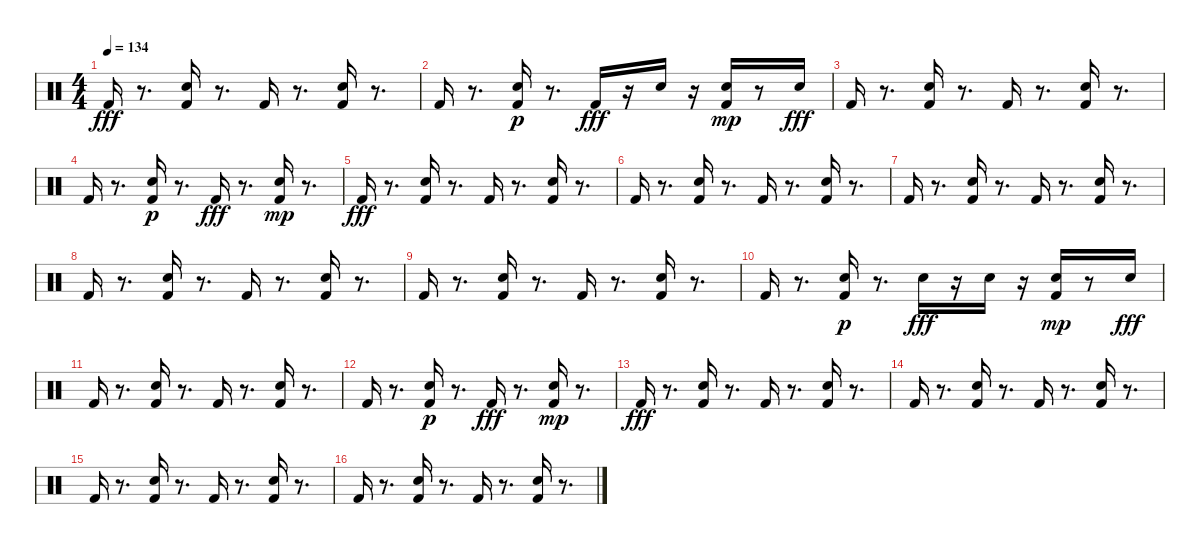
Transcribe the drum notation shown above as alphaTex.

\track "" {instrument percussion}
\staff {score}
\articulation defaults
\ts (4 4)
\tempo 134
\clef neutral
\ks c "Kick (hit) 2".16{dy fff}
r.8{d} ("Kick (hit) 2" "Snare (hit) 2").16 r.8{d} "Kick (hit) 2".16 r.8{d} ("Kick (hit) 2" "Snare (hit) 2").16 r.8{d} |
"Kick (hit) 2".16 r.8{d} ("Snare (hit) 2" "Kick (hit) 2").16{dy p} r.8{d} "Kick (hit) 2".16{dy fff} r.16 "Snare (hit) 2".16 r.16 ("Snare (hit) 2" "Kick (hit) 2").16{dy mp} r.8 "Snare (hit) 2".16{dy fff} |
"Kick (hit) 2".16 r.8{d} ("Kick (hit) 2" "Snare (hit) 2").16 r.8{d} "Kick (hit) 2".16 r.8{d} ("Kick (hit) 2" "Snare (hit) 2").16 r.8{d} |
"Kick (hit) 2".16 r.8{d} ("Snare (hit) 2" "Kick (hit) 2").16{dy p} r.8{d} "Kick (hit) 2".16{dy fff} r.8{d} ("Snare (hit) 2" "Kick (hit) 2").16{dy mp} r.8{d} |
"Kick (hit) 2".16{dy fff} r.8{d} ("Kick (hit) 2" "Snare (hit) 2").16 r.8{d} "Kick (hit) 2".16 r.8{d} ("Kick (hit) 2" "Snare (hit) 2").16 r.8{d} |
"Kick (hit) 2".16 r.8{d} ("Kick (hit) 2" "Snare (hit) 2").16 r.8{d} "Kick (hit) 2".16 r.8{d} ("Kick (hit) 2" "Snare (hit) 2").16 r.8{d} |
"Kick (hit) 2".16 r.8{d} ("Kick (hit) 2" "Snare (hit) 2").16 r.8{d} "Kick (hit) 2".16 r.8{d} ("Kick (hit) 2" "Snare (hit) 2").16 r.8{d} |
"Kick (hit) 2".16 r.8{d} ("Kick (hit) 2" "Snare (hit) 2").16 r.8{d} "Kick (hit) 2".16 r.8{d} ("Kick (hit) 2" "Snare (hit) 2").16 r.8{d} |
"Kick (hit) 2".16 r.8{d} ("Kick (hit) 2" "Snare (hit) 2").16 r.8{d} "Kick (hit) 2".16 r.8{d} ("Kick (hit) 2" "Snare (hit) 2").16 r.8{d} |
"Kick (hit) 2".16 r.8{d} ("Snare (hit) 2" "Kick (hit) 2").16{dy p} r.8{d} "Snare (hit) 2".16{dy fff} r.16 "Snare (hit) 2".16 r.16 ("Snare (hit) 2" "Kick (hit) 2").16{dy mp} r.8 "Snare (hit) 2".16{dy fff} |
"Kick (hit) 2".16 r.8{d} ("Kick (hit) 2" "Snare (hit) 2").16 r.8{d} "Kick (hit) 2".16 r.8{d} ("Kick (hit) 2" "Snare (hit) 2").16 r.8{d} |
"Kick (hit) 2".16 r.8{d} ("Snare (hit) 2" "Kick (hit) 2").16{dy p} r.8{d} "Kick (hit) 2".16{dy fff} r.8{d} ("Snare (hit) 2" "Kick (hit) 2").16{dy mp} r.8{d} |
"Kick (hit) 2".16{dy fff} r.8{d} ("Kick (hit) 2" "Snare (hit) 2").16 r.8{d} "Kick (hit) 2".16 r.8{d} ("Kick (hit) 2" "Snare (hit) 2").16 r.8{d} |
"Kick (hit) 2".16 r.8{d} ("Kick (hit) 2" "Snare (hit) 2").16 r.8{d} "Kick (hit) 2".16 r.8{d} ("Kick (hit) 2" "Snare (hit) 2").16 r.8{d} |
"Kick (hit) 2".16 r.8{d} ("Kick (hit) 2" "Snare (hit) 2").16 r.8{d} "Kick (hit) 2".16 r.8{d} ("Kick (hit) 2" "Snare (hit) 2").16 r.8{d} |
"Kick (hit) 2".16 r.8{d} ("Kick (hit) 2" "Snare (hit) 2").16 r.8{d} "Kick (hit) 2".16 r.8{d} ("Kick (hit) 2" "Snare (hit) 2").16 r.8{d}
